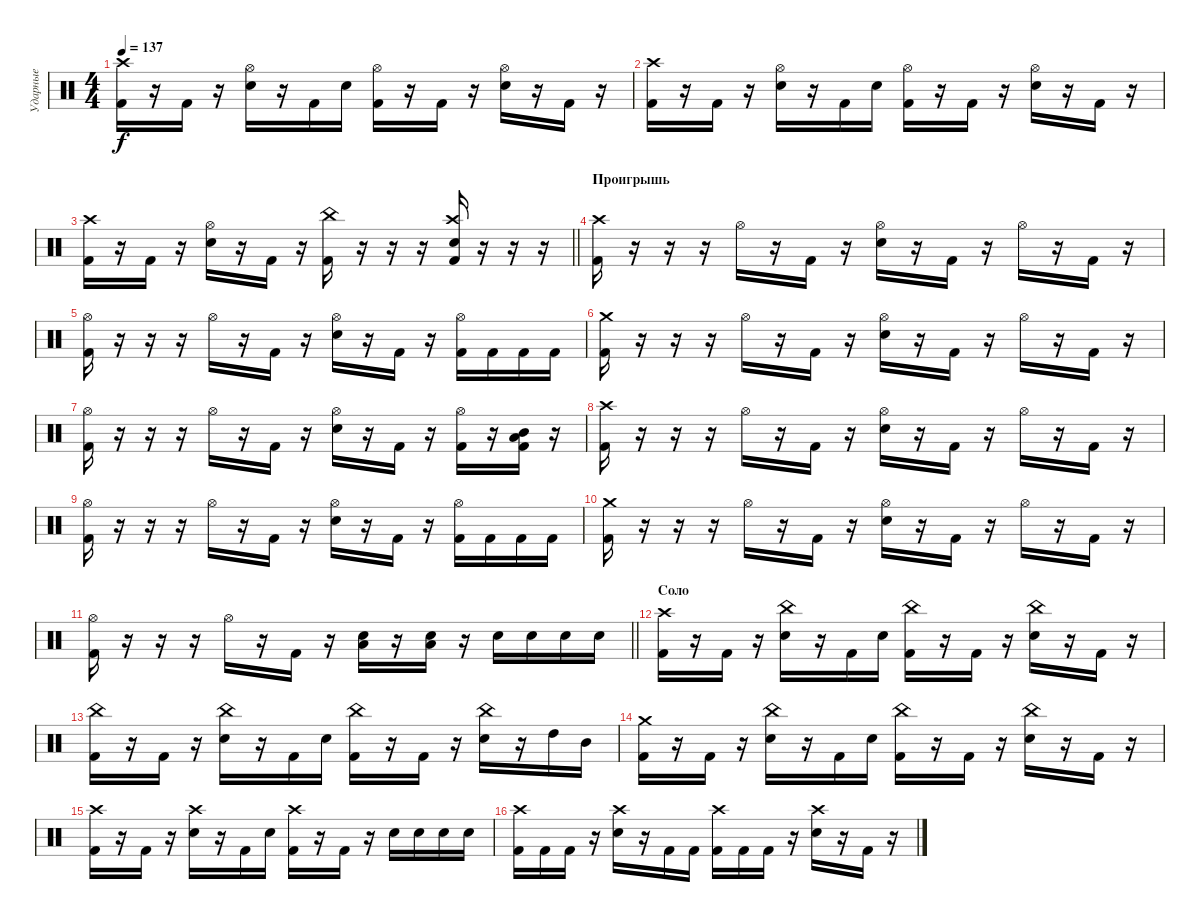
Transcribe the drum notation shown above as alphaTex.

\track ("Ударные" "Ударные") {instrument percussion}
\staff {score}
\articulation defaults
\ts (4 4)
\tempo 137
\clef neutral
\ks c
("Kick (hit) 2" "Crash high (hit)").16{dy f} r.16 "Kick (hit) 2".16 r.16 ("Snare (hit) 2" "Hi-Hat (open)").16 r.16 "Kick (hit) 2".16 "Snare (hit) 2".16 ("Kick (hit) 2" "Hi-Hat (open)").16 r.16 "Kick (hit) 2".16 r.16 ("Snare (hit) 2" "Hi-Hat (open)").16 r.16 "Kick (hit) 2".16 r.16 |
("Kick (hit) 2" "Crash high (hit)").16 r.16 "Kick (hit) 2".16 r.16 ("Snare (hit) 2" "Hi-Hat (open)").16 r.16 "Kick (hit) 2".16 "Snare (hit) 2".16 ("Kick (hit) 2" "Hi-Hat (open)").16 r.16 "Kick (hit) 2".16 r.16 ("Snare (hit) 2" "Hi-Hat (open)").16 r.16 "Kick (hit) 2".16 r.16 |
\barLineRight lightlight
("Kick (hit) 2" "Crash high (hit)").16 r.16 "Kick (hit) 2".16 r.16 ("Snare (hit) 2" "Hi-Hat (open)").16 r.16 "Kick (hit) 2".16 r.16 ("Kick (hit) 2" "China (hit)").16 r.16 r.16 r.16 ("Kick (hit) 2" "Snare (hit) 2" "Crash high (hit)").16 r.16 r.16 r.16 |
\section ("" "Проигрышь")
("Kick (hit) 2" "Crash high (hit)").16 r.16 r.16 r.16 "Hi-Hat (open)".16 r.16 "Kick (hit) 2".16 r.16 ("Snare (hit) 2" "Hi-Hat (open)").16 r.16 "Kick (hit) 2".16 r.16 "Hi-Hat (open)".16 r.16 "Kick (hit) 2".16 r.16 |
("Kick (hit) 2" "Hi-Hat (open)").16 r.16 r.16 r.16 "Hi-Hat (open)".16 r.16 "Kick (hit) 2".16 r.16 ("Snare (hit) 2" "Hi-Hat (open)").16 r.16 "Kick (hit) 2".16 r.16 ("Kick (hit) 2" "Hi-Hat (open)").16 "Kick (hit) 2".16 "Kick (hit) 2".16 "Kick (hit) 2".16 |
("Kick (hit) 2" "Crash medium (hit)").16 r.16 r.16 r.16 "Hi-Hat (open)".16 r.16 "Kick (hit) 2".16 r.16 ("Snare (hit) 2" "Hi-Hat (open)").16 r.16 "Kick (hit) 2".16 r.16 "Hi-Hat (open)".16 r.16 "Kick (hit) 2".16 r.16 |
("Kick (hit) 2" "Hi-Hat (open)").16 r.16 r.16 r.16 "Hi-Hat (open)".16 r.16 "Kick (hit) 2".16 r.16 ("Snare (hit) 2" "Hi-Hat (open)").16 r.16 "Kick (hit) 2".16 r.16 ("Kick (hit) 2" "Hi-Hat (open)").16 r.16 ("Kick (hit) 2" "Low Tom (hit)" "Mid Tom (hit)").16 r.16 |
("Kick (hit) 2" "Crash high (hit)").16 r.16 r.16 r.16 "Hi-Hat (open)".16 r.16 "Kick (hit) 2".16 r.16 ("Snare (hit) 2" "Hi-Hat (open)").16 r.16 "Kick (hit) 2".16 r.16 "Hi-Hat (open)".16 r.16 "Kick (hit) 2".16 r.16 |
("Kick (hit) 2" "Hi-Hat (open)").16 r.16 r.16 r.16 "Hi-Hat (open)".16 r.16 "Kick (hit) 2".16 r.16 ("Snare (hit) 2" "Hi-Hat (open)").16 r.16 "Kick (hit) 2".16 r.16 ("Kick (hit) 2" "Hi-Hat (open)").16 "Kick (hit) 2".16 "Kick (hit) 2".16 "Kick (hit) 2".16 |
("Kick (hit) 2" "Crash medium (hit)").16 r.16 r.16 r.16 "Hi-Hat (open)".16 r.16 "Kick (hit) 2".16 r.16 ("Snare (hit) 2" "Hi-Hat (open)").16 r.16 "Kick (hit) 2".16 r.16 "Hi-Hat (open)".16 r.16 "Kick (hit) 2".16 r.16 |
\barLineRight lightlight
("Kick (hit) 2" "Hi-Hat (open)").16 r.16 r.16 r.16 "Hi-Hat (open)".16 r.16 "Kick (hit) 2".16 r.16 ("Low Tom (hit)" "Snare (hit) 2").16 r.16 ("Snare (hit) 2" "Low Tom (hit)").16 r.16 "Snare (hit) 2".16 "Snare (hit) 2".16 "Snare (hit) 2".16 "Snare (hit) 2".16 |
\section ("" "Соло")
("Kick (hit) 2" "Crash high (hit)").16 r.16 "Kick (hit) 2".16 r.16 ("Snare (hit) 2" "China (hit)").16 r.16 "Kick (hit) 2".16 "Snare (hit) 2".16 ("Kick (hit) 2" "China (hit)").16 r.16 "Kick (hit) 2".16 r.16 ("Snare (hit) 2" "China (hit)").16 r.16 "Kick (hit) 2".16 r.16 |
("Kick (hit) 2" "China (hit)").16 r.16 "Kick (hit) 2".16 r.16 ("Snare (hit) 2" "China (hit)").16 r.16 "Kick (hit) 2".16 "Snare (hit) 2".16 ("Kick (hit) 2" "China (hit)").16 r.16 "Kick (hit) 2".16 r.16 ("Snare (hit) 2" "China (hit)").16 r.16 "High Tom (hit)".16 "Mid Tom (hit)".16 |
("Kick (hit) 2" "Crash medium (hit)").16 r.16 "Kick (hit) 2".16 r.16 ("Snare (hit) 2" "China (hit)").16 r.16 "Kick (hit) 2".16 "Snare (hit) 2".16 ("Kick (hit) 2" "China (hit)").16 r.16 "Kick (hit) 2".16 r.16 ("Snare (hit) 2" "China (hit)").16 r.16 "Kick (hit) 2".16 r.16 |
("Kick (hit) 2" "Crash high (hit)").16 r.16 "Kick (hit) 2".16 r.16 ("Snare (hit) 2" "Crash high (hit)").16 r.16 "Kick (hit) 2".16 "Snare (hit) 2".16 ("Kick (hit) 2" "Crash high (hit)").16 r.16 "Kick (hit) 2".16 r.16 "Snare (hit) 2".16 "Snare (hit) 2".16 "Snare (hit) 2".16 "Snare (hit) 2".16 |
("Kick (hit) 2" "Crash high (hit)").16 "Kick (hit) 2".16 "Kick (hit) 2".16 r.16 ("Snare (hit) 2" "Crash high (hit)").16 r.16 "Kick (hit) 2".16 "Kick (hit) 2".16 ("Kick (hit) 2" "Crash high (hit)").16 "Kick (hit) 2".16 "Kick (hit) 2".16 r.16 ("Snare (hit) 2" "Crash high (hit)").16 r.16 "Kick (hit) 2".16 r.16
